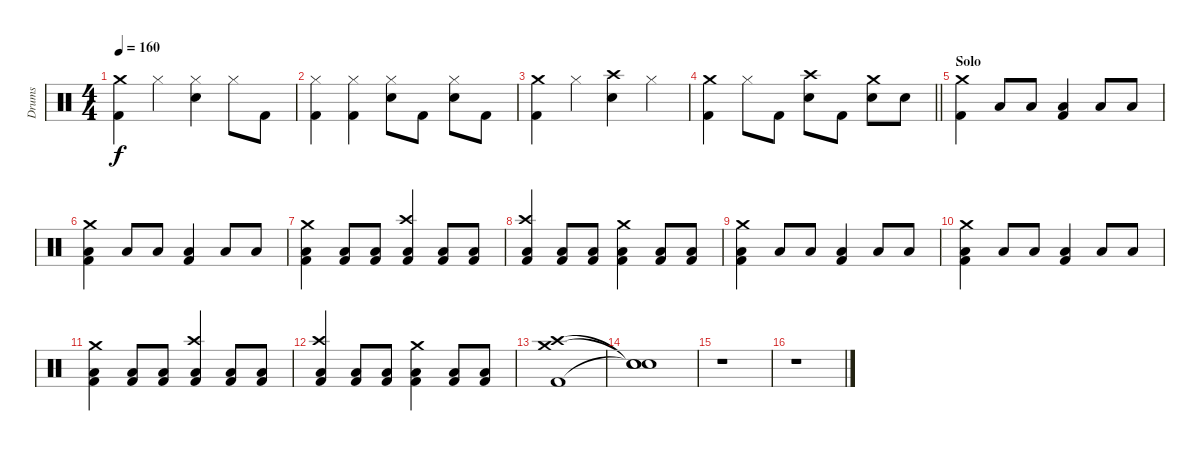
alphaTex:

\track ("Drums" "Drums") {instrument percussion}
\staff {score}
\articulation defaults
\ts (4 4)
\tempo 160
\clef neutral
\ks c
("Crash medium (hit)" "Kick (hit) 2").4{dy f} "Hi-Hat (closed)".4 ("Hi-Hat (closed)" "Snare (hit) 2").4 "Hi-Hat (closed)".8 "Kick (hit) 2".8 |
("Hi-Hat (closed)" "Kick (hit) 2").4 ("Hi-Hat (closed)" "Kick (hit) 2").4 ("Hi-Hat (closed)" "Snare (hit) 2").8 "Kick (hit) 2".8 ("Hi-Hat (closed)" "Snare (hit) 2").8 "Kick (hit) 2".8 |
("Crash medium (hit)" "Kick (hit) 2").4 "Hi-Hat (closed)".4 ("Crash high (hit)" "Snare (hit) 2").4 "Hi-Hat (closed)".4 |
\barLineRight lightlight
("Crash medium (hit)" "Kick (hit) 2").4 "Hi-Hat (closed)".8 "Kick (hit) 2".8 ("Crash high (hit)" "Snare (hit) 2").8 "Kick (hit) 2".8 ("Crash medium (hit)" "Snare (hit) 2").8 "Snare (hit) 2".8 |
\section ("" "Solo")
("Crash medium (hit)" "Kick (hit) 2").4 "Low Floor Tom (hit)".8 "Low Floor Tom (hit)".8 ("Low Floor Tom (hit)" "Kick (hit) 2").4 "Low Floor Tom (hit)".8 "Low Floor Tom (hit)".8 |
("Crash medium (hit)" "Low Floor Tom (hit)" "Kick (hit) 2").4 "Low Floor Tom (hit)".8 "Low Floor Tom (hit)".8 ("Low Floor Tom (hit)" "Kick (hit) 2").4 "Low Floor Tom (hit)".8 "Low Floor Tom (hit)".8 |
("Crash medium (hit)" "Low Floor Tom (hit)" "Kick (hit) 2").4 ("Low Floor Tom (hit)" "Kick (hit) 2").8 ("Low Floor Tom (hit)" "Kick (hit) 2").8 ("Crash high (hit)" "Low Floor Tom (hit)" "Kick (hit) 2").4 ("Low Floor Tom (hit)" "Kick (hit) 2").8 ("Low Floor Tom (hit)" "Kick (hit) 2").8 |
("Crash high (hit)" "Low Floor Tom (hit)" "Kick (hit) 2").4 ("Low Floor Tom (hit)" "Kick (hit) 2").8 ("Low Floor Tom (hit)" "Kick (hit) 2").8 ("Crash medium (hit)" "Low Floor Tom (hit)" "Kick (hit) 2").4 ("Low Floor Tom (hit)" "Kick (hit) 2").8 ("Low Floor Tom (hit)" "Kick (hit) 2").8 |
("Crash medium (hit)" "Low Floor Tom (hit)" "Kick (hit) 2").4 "Low Floor Tom (hit)".8 "Low Floor Tom (hit)".8 ("Low Floor Tom (hit)" "Kick (hit) 2").4 "Low Floor Tom (hit)".8 "Low Floor Tom (hit)".8 |
("Crash medium (hit)" "Low Floor Tom (hit)" "Kick (hit) 2").4 "Low Floor Tom (hit)".8 "Low Floor Tom (hit)".8 ("Low Floor Tom (hit)" "Kick (hit) 2").4 "Low Floor Tom (hit)".8 "Low Floor Tom (hit)".8 |
("Crash medium (hit)" "Low Floor Tom (hit)" "Kick (hit) 2").4 ("Low Floor Tom (hit)" "Kick (hit) 2").8 ("Low Floor Tom (hit)" "Kick (hit) 2").8 ("Crash high (hit)" "Low Floor Tom (hit)" "Kick (hit) 2").4 ("Low Floor Tom (hit)" "Kick (hit) 2").8 ("Low Floor Tom (hit)" "Kick (hit) 2").8 |
("Crash high (hit)" "Low Floor Tom (hit)" "Kick (hit) 2").4 ("Low Floor Tom (hit)" "Kick (hit) 2").8 ("Low Floor Tom (hit)" "Kick (hit) 2").8 ("Crash medium (hit)" "Low Floor Tom (hit)" "Kick (hit) 2").4 ("Low Floor Tom (hit)" "Kick (hit) 2").8 ("Low Floor Tom (hit)" "Kick (hit) 2").8 |
("Crash medium (hit)" "Crash high (hit)" "Kick (hit) 2").1 |
("Snare (hit)"{t} "Snare (hit)"{t} "Snare (hit)"{t}).1 |
r.1 |
r.1
